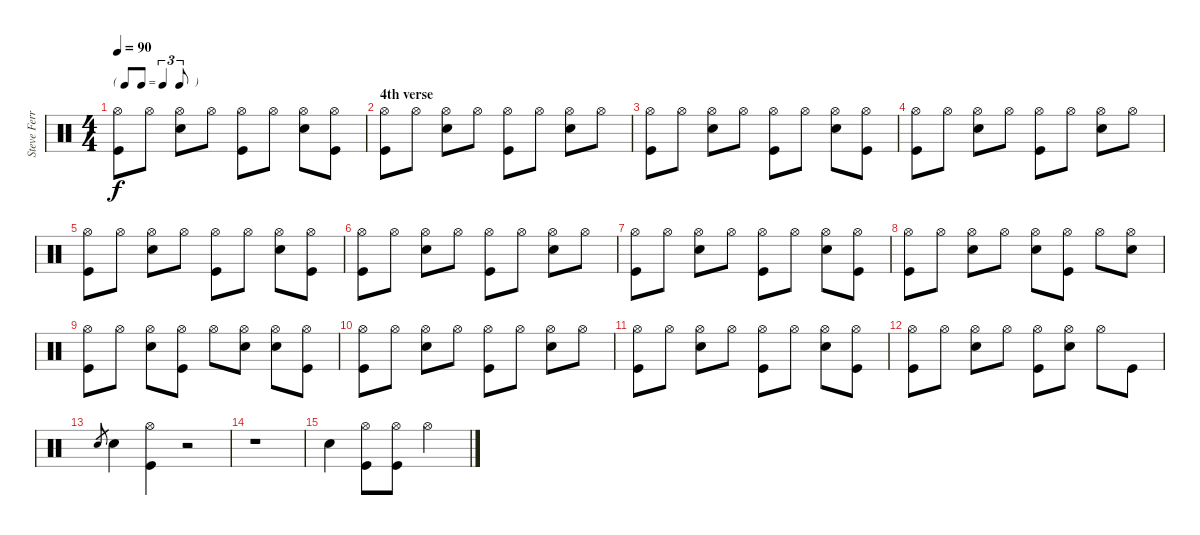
\track ("Steve Ferrone" "Steve Ferr") {instrument percussion}
\staff {score}
\articulation defaults
\ts (4 4)
\tf triplet8th
\tempo 90
\clef neutral
\ks c
("Hi-Hat (open)" "Kick (hit)").8{dy f} "Hi-Hat (open)".8 ("Hi-Hat (open)" "Snare (hit) 2").8 "Hi-Hat (open)".8 ("Hi-Hat (open)" "Kick (hit)").8 "Hi-Hat (open)".8 ("Hi-Hat (open)" "Snare (hit) 2").8 ("Hi-Hat (open)" "Kick (hit)").8 |
\section ("" "4th verse")
("Hi-Hat (open)" "Kick (hit)").8 "Hi-Hat (open)".8 ("Hi-Hat (open)" "Snare (hit) 2").8 "Hi-Hat (open)".8 ("Hi-Hat (open)" "Kick (hit)").8 "Hi-Hat (open)".8 ("Hi-Hat (open)" "Snare (hit) 2").8 "Hi-Hat (open)".8 |
("Hi-Hat (open)" "Kick (hit)").8 "Hi-Hat (open)".8 ("Hi-Hat (open)" "Snare (hit) 2").8 "Hi-Hat (open)".8 ("Hi-Hat (open)" "Kick (hit)").8 "Hi-Hat (open)".8 ("Hi-Hat (open)" "Snare (hit) 2").8 ("Hi-Hat (open)" "Kick (hit)").8 |
("Hi-Hat (open)" "Kick (hit)").8 "Hi-Hat (open)".8 ("Hi-Hat (open)" "Snare (hit) 2").8 "Hi-Hat (open)".8 ("Hi-Hat (open)" "Kick (hit)").8 "Hi-Hat (open)".8 ("Hi-Hat (open)" "Snare (hit) 2").8 "Hi-Hat (open)".8 |
("Hi-Hat (open)" "Kick (hit)").8 "Hi-Hat (open)".8 ("Hi-Hat (open)" "Snare (hit) 2").8 "Hi-Hat (open)".8 ("Hi-Hat (open)" "Kick (hit)").8 "Hi-Hat (open)".8 ("Hi-Hat (open)" "Snare (hit) 2").8 ("Hi-Hat (open)" "Kick (hit)").8 |
("Hi-Hat (open)" "Kick (hit)").8 "Hi-Hat (open)".8 ("Hi-Hat (open)" "Snare (hit) 2").8 "Hi-Hat (open)".8 ("Hi-Hat (open)" "Kick (hit)").8 "Hi-Hat (open)".8 ("Hi-Hat (open)" "Snare (hit) 2").8 "Hi-Hat (open)".8 |
("Hi-Hat (open)" "Kick (hit)").8 "Hi-Hat (open)".8 ("Hi-Hat (open)" "Snare (hit) 2").8 "Hi-Hat (open)".8 ("Hi-Hat (open)" "Kick (hit)").8 "Hi-Hat (open)".8 ("Hi-Hat (open)" "Snare (hit) 2").8 ("Hi-Hat (open)" "Kick (hit)").8 |
("Hi-Hat (open)" "Kick (hit)").8 "Hi-Hat (open)".8 ("Hi-Hat (open)" "Snare (hit) 2").8 "Hi-Hat (open)".8 ("Hi-Hat (open)" "Snare (hit) 2").8 ("Hi-Hat (open)" "Kick (hit)").8 "Hi-Hat (open)".8 ("Hi-Hat (open)" "Snare (hit) 2").8 |
("Hi-Hat (open)" "Kick (hit)").8 "Hi-Hat (open)".8 ("Hi-Hat (open)" "Snare (hit) 2").8 ("Hi-Hat (open)" "Kick (hit)").8 "Hi-Hat (open)".8 ("Hi-Hat (open)" "Snare (hit) 2").8 ("Hi-Hat (open)" "Snare (hit) 2").8 ("Hi-Hat (open)" "Kick (hit)").8 |
("Hi-Hat (open)" "Kick (hit)").8 "Hi-Hat (open)".8 ("Hi-Hat (open)" "Snare (hit) 2").8 "Hi-Hat (open)".8 ("Hi-Hat (open)" "Kick (hit)").8 "Hi-Hat (open)".8 ("Hi-Hat (open)" "Snare (hit) 2").8 "Hi-Hat (open)".8 |
("Hi-Hat (open)" "Kick (hit)").8 "Hi-Hat (open)".8 ("Hi-Hat (open)" "Snare (hit) 2").8 "Hi-Hat (open)".8 ("Hi-Hat (open)" "Kick (hit)").8 "Hi-Hat (open)".8 ("Hi-Hat (open)" "Snare (hit) 2").8 ("Hi-Hat (open)" "Kick (hit)").8 |
("Hi-Hat (open)" "Kick (hit)").8 "Hi-Hat (open)".8 ("Hi-Hat (open)" "Snare (hit) 2").8 "Hi-Hat (open)".8 ("Hi-Hat (open)" "Kick (hit)").8 ("Hi-Hat (open)" "Snare (hit) 2").8 "Hi-Hat (open)".8 "Kick (hit)".8 |
"Snare (hit) 2".8{gr} "Snare (hit) 2".4 ("Hi-Hat (open)" "Kick (hit)").4 r.2 |
r.1 |
"Snare (hit) 2".4 ("Hi-Hat (open)" "Kick (hit)").8 ("Hi-Hat (open)" "Kick (hit)").8 "Hi-Hat (open)".2
